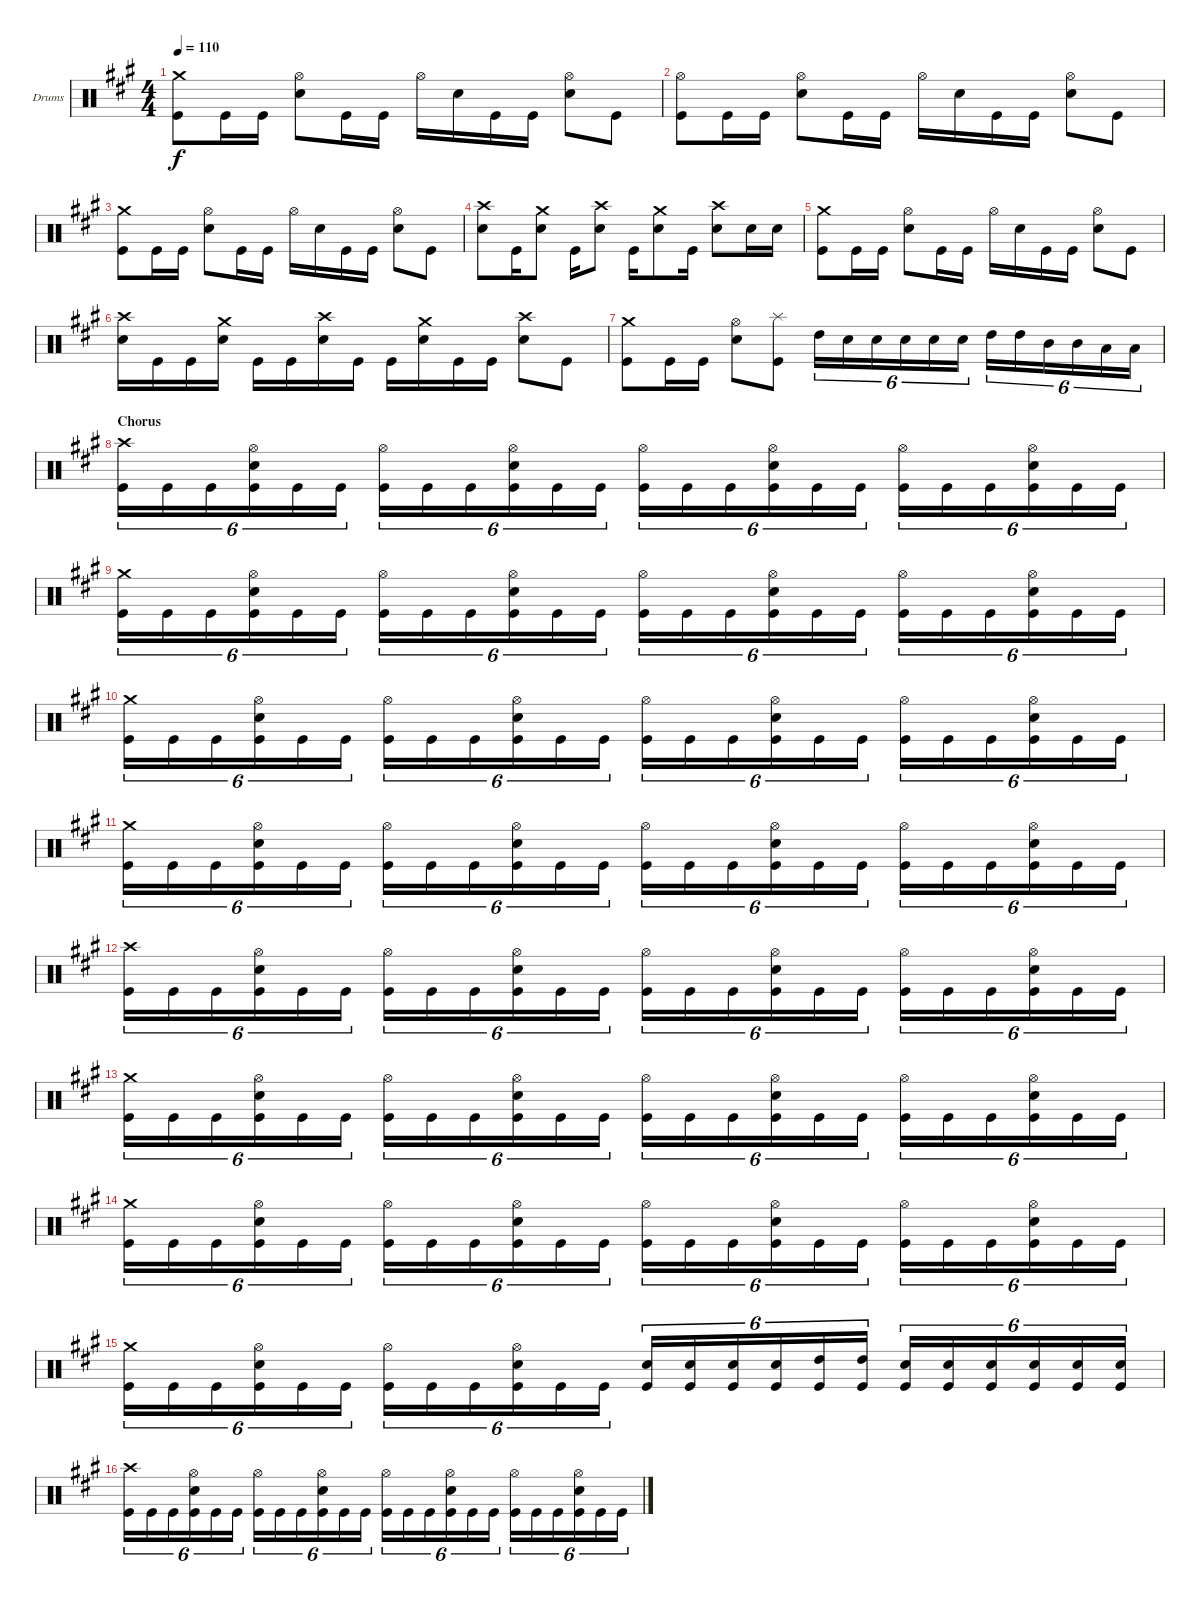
\bracketExtendMode groupsimilarinstruments
\firstSystemTrackNameOrientation horizontal
\otherSystemsTrackNameOrientation horizontal
\track ("Drumkit" "Drums") {instrument percussion}
\staff {score}
\articulation defaults
\ts (4 4)
\tempo 110
\clef neutral
\ks a
("Kick (hit)" "Crash medium (hit)").8{dy f} "Kick (hit)".16 "Kick (hit)".16 ("Snare (hit) 2" "Hi-Hat (open)").8 "Kick (hit)".16 "Kick (hit)".16 "Hi-Hat (open)".16 "Snare (hit) 2".16 "Kick (hit)".16 "Kick (hit)".16 ("Snare (hit) 2" "Hi-Hat (open)").8 "Kick (hit)".8 |
("Kick (hit)" "Hi-Hat (open)").8 "Kick (hit)".16 "Kick (hit)".16 ("Snare (hit) 2" "Hi-Hat (open)").8 "Kick (hit)".16 "Kick (hit)".16 "Hi-Hat (open)".16 "Snare (hit) 2".16 "Kick (hit)".16 "Kick (hit)".16 ("Snare (hit) 2" "Hi-Hat (open)").8 "Kick (hit)".8 |
("Kick (hit)" "Crash medium (hit)").8 "Kick (hit)".16 "Kick (hit)".16 ("Snare (hit) 2" "Hi-Hat (open)").8 "Kick (hit)".16 "Kick (hit)".16 "Hi-Hat (open)".16 "Snare (hit) 2".16 "Kick (hit)".16 "Kick (hit)".16 ("Snare (hit) 2" "Hi-Hat (open)").8 "Kick (hit)".8 |
("Crash high (hit)" "Snare (hit) 2").8 "Kick (hit)".16 ("Snare (hit) 2" "Crash medium (hit)").8 "Kick (hit)".16 ("Snare (hit) 2" "Crash high (hit)").8 "Kick (hit)".16 ("Snare (hit) 2" "Crash medium (hit)").8 "Kick (hit)".16 ("Snare (hit) 2" "Crash high (hit)").8 "Snare (hit) 2".16 "Snare (hit) 2".16 |
("Kick (hit)" "Crash medium (hit)").8 "Kick (hit)".16 "Kick (hit)".16 ("Snare (hit) 2" "Hi-Hat (open)").8 "Kick (hit)".16 "Kick (hit)".16 "Hi-Hat (open)".16 "Snare (hit) 2".16 "Kick (hit)".16 "Kick (hit)".16 ("Snare (hit) 2" "Hi-Hat (open)").8 "Kick (hit)".8 |
("Crash high (hit)" "Snare (hit) 2").16 "Kick (hit)".16 "Kick (hit)".16 ("Snare (hit) 2" "Crash medium (hit)").16 "Kick (hit)".16 "Kick (hit)".16 ("Snare (hit) 2" "Crash high (hit)").16 "Kick (hit)".16 "Kick (hit)".16 ("Snare (hit) 2" "Crash medium (hit)").16 "Kick (hit)".16 "Kick (hit)".16 ("Snare (hit) 2" "Crash high (hit)").8 "Kick (hit)".8 |
("Kick (hit)" "Crash medium (hit)").8 "Kick (hit)".16 "Kick (hit)".16 ("Snare (hit) 2" "Hi-Hat (open)").8 ("Kick (hit)" "Splash (hit)").8 "High Tom (hit)".16{tu (6 4)} "Snare (hit) 2".16{tu (6 4)} "Snare (hit) 2".16{tu (6 4)} "Snare (hit) 2".16{tu (6 4)} "Snare (hit) 2".16{tu (6 4)} "Snare (hit) 2".16{tu (6 4)} "High Tom (hit)".16{tu (6 4)} "High Tom (hit)".16{tu (6 4)} "Mid Tom (hit)".16{tu (6 4)} "Mid Tom (hit)".16{tu (6 4)} "Low Tom (hit)".16{tu (6 4)} "Low Tom (hit)".16{tu (6 4)} |
\section ("" "Chorus")
("Crash high (hit)" "Kick (hit)").16{tu (6 4)} "Kick (hit)".16{tu (6 4)} "Kick (hit)".16{tu (6 4)} ("Snare (hit) 2" "Kick (hit)" "Hi-Hat (open)").16{tu (6 4)} "Kick (hit)".16{tu (6 4)} "Kick (hit)".16{tu (6 4)} ("Kick (hit)" "Hi-Hat (open)").16{tu (6 4)} "Kick (hit)".16{tu (6 4)} "Kick (hit)".16{tu (6 4)} ("Snare (hit) 2" "Kick (hit)" "Hi-Hat (open)").16{tu (6 4)} "Kick (hit)".16{tu (6 4)} "Kick (hit)".16{tu (6 4)} ("Kick (hit)" "Hi-Hat (open)").16{tu (6 4)} "Kick (hit)".16{tu (6 4)} "Kick (hit)".16{tu (6 4)} ("Snare (hit) 2" "Kick (hit)" "Hi-Hat (open)").16{tu (6 4)} "Kick (hit)".16{tu (6 4)} "Kick (hit)".16{tu (6 4)} ("Kick (hit)" "Hi-Hat (open)").16{tu (6 4)} "Kick (hit)".16{tu (6 4)} "Kick (hit)".16{tu (6 4)} ("Snare (hit) 2" "Kick (hit)" "Hi-Hat (open)").16{tu (6 4)} "Kick (hit)".16{tu (6 4)} "Kick (hit)".16{tu (6 4)} |
("Kick (hit)" "Crash medium (hit)").16{tu (6 4)} "Kick (hit)".16{tu (6 4)} "Kick (hit)".16{tu (6 4)} ("Snare (hit) 2" "Kick (hit)" "Hi-Hat (open)").16{tu (6 4)} "Kick (hit)".16{tu (6 4)} "Kick (hit)".16{tu (6 4)} ("Kick (hit)" "Hi-Hat (open)").16{tu (6 4)} "Kick (hit)".16{tu (6 4)} "Kick (hit)".16{tu (6 4)} ("Snare (hit) 2" "Kick (hit)" "Hi-Hat (open)").16{tu (6 4)} "Kick (hit)".16{tu (6 4)} "Kick (hit)".16{tu (6 4)} ("Kick (hit)" "Hi-Hat (open)").16{tu (6 4)} "Kick (hit)".16{tu (6 4)} "Kick (hit)".16{tu (6 4)} ("Snare (hit) 2" "Kick (hit)" "Hi-Hat (open)").16{tu (6 4)} "Kick (hit)".16{tu (6 4)} "Kick (hit)".16{tu (6 4)} ("Kick (hit)" "Hi-Hat (open)").16{tu (6 4)} "Kick (hit)".16{tu (6 4)} "Kick (hit)".16{tu (6 4)} ("Snare (hit) 2" "Kick (hit)" "Hi-Hat (open)").16{tu (6 4)} "Kick (hit)".16{tu (6 4)} "Kick (hit)".16{tu (6 4)} |
("Kick (hit)" "Crash medium (hit)").16{tu (6 4)} "Kick (hit)".16{tu (6 4)} "Kick (hit)".16{tu (6 4)} ("Snare (hit) 2" "Kick (hit)" "Hi-Hat (open)").16{tu (6 4)} "Kick (hit)".16{tu (6 4)} "Kick (hit)".16{tu (6 4)} ("Kick (hit)" "Hi-Hat (open)").16{tu (6 4)} "Kick (hit)".16{tu (6 4)} "Kick (hit)".16{tu (6 4)} ("Snare (hit) 2" "Kick (hit)" "Hi-Hat (open)").16{tu (6 4)} "Kick (hit)".16{tu (6 4)} "Kick (hit)".16{tu (6 4)} ("Kick (hit)" "Hi-Hat (open)").16{tu (6 4)} "Kick (hit)".16{tu (6 4)} "Kick (hit)".16{tu (6 4)} ("Snare (hit) 2" "Kick (hit)" "Hi-Hat (open)").16{tu (6 4)} "Kick (hit)".16{tu (6 4)} "Kick (hit)".16{tu (6 4)} ("Kick (hit)" "Hi-Hat (open)").16{tu (6 4)} "Kick (hit)".16{tu (6 4)} "Kick (hit)".16{tu (6 4)} ("Snare (hit) 2" "Kick (hit)" "Hi-Hat (open)").16{tu (6 4)} "Kick (hit)".16{tu (6 4)} "Kick (hit)".16{tu (6 4)} |
("Kick (hit)" "Crash medium (hit)").16{tu (6 4)} "Kick (hit)".16{tu (6 4)} "Kick (hit)".16{tu (6 4)} ("Snare (hit) 2" "Kick (hit)" "Hi-Hat (open)").16{tu (6 4)} "Kick (hit)".16{tu (6 4)} "Kick (hit)".16{tu (6 4)} ("Kick (hit)" "Hi-Hat (open)").16{tu (6 4)} "Kick (hit)".16{tu (6 4)} "Kick (hit)".16{tu (6 4)} ("Snare (hit) 2" "Kick (hit)" "Hi-Hat (open)").16{tu (6 4)} "Kick (hit)".16{tu (6 4)} "Kick (hit)".16{tu (6 4)} ("Kick (hit)" "Hi-Hat (open)").16{tu (6 4)} "Kick (hit)".16{tu (6 4)} "Kick (hit)".16{tu (6 4)} ("Snare (hit) 2" "Kick (hit)" "Hi-Hat (open)").16{tu (6 4)} "Kick (hit)".16{tu (6 4)} "Kick (hit)".16{tu (6 4)} ("Kick (hit)" "Hi-Hat (open)").16{tu (6 4)} "Kick (hit)".16{tu (6 4)} "Kick (hit)".16{tu (6 4)} ("Snare (hit) 2" "Kick (hit)" "Hi-Hat (open)").16{tu (6 4)} "Kick (hit)".16{tu (6 4)} "Kick (hit)".16{tu (6 4)} |
("Crash high (hit)" "Kick (hit)").16{tu (6 4)} "Kick (hit)".16{tu (6 4)} "Kick (hit)".16{tu (6 4)} ("Snare (hit) 2" "Kick (hit)" "Hi-Hat (open)").16{tu (6 4)} "Kick (hit)".16{tu (6 4)} "Kick (hit)".16{tu (6 4)} ("Kick (hit)" "Hi-Hat (open)").16{tu (6 4)} "Kick (hit)".16{tu (6 4)} "Kick (hit)".16{tu (6 4)} ("Snare (hit) 2" "Kick (hit)" "Hi-Hat (open)").16{tu (6 4)} "Kick (hit)".16{tu (6 4)} "Kick (hit)".16{tu (6 4)} ("Kick (hit)" "Hi-Hat (open)").16{tu (6 4)} "Kick (hit)".16{tu (6 4)} "Kick (hit)".16{tu (6 4)} ("Snare (hit) 2" "Kick (hit)" "Hi-Hat (open)").16{tu (6 4)} "Kick (hit)".16{tu (6 4)} "Kick (hit)".16{tu (6 4)} ("Kick (hit)" "Hi-Hat (open)").16{tu (6 4)} "Kick (hit)".16{tu (6 4)} "Kick (hit)".16{tu (6 4)} ("Snare (hit) 2" "Kick (hit)" "Hi-Hat (open)").16{tu (6 4)} "Kick (hit)".16{tu (6 4)} "Kick (hit)".16{tu (6 4)} |
("Kick (hit)" "Crash medium (hit)").16{tu (6 4)} "Kick (hit)".16{tu (6 4)} "Kick (hit)".16{tu (6 4)} ("Snare (hit) 2" "Kick (hit)" "Hi-Hat (open)").16{tu (6 4)} "Kick (hit)".16{tu (6 4)} "Kick (hit)".16{tu (6 4)} ("Kick (hit)" "Hi-Hat (open)").16{tu (6 4)} "Kick (hit)".16{tu (6 4)} "Kick (hit)".16{tu (6 4)} ("Snare (hit) 2" "Kick (hit)" "Hi-Hat (open)").16{tu (6 4)} "Kick (hit)".16{tu (6 4)} "Kick (hit)".16{tu (6 4)} ("Kick (hit)" "Hi-Hat (open)").16{tu (6 4)} "Kick (hit)".16{tu (6 4)} "Kick (hit)".16{tu (6 4)} ("Snare (hit) 2" "Kick (hit)" "Hi-Hat (open)").16{tu (6 4)} "Kick (hit)".16{tu (6 4)} "Kick (hit)".16{tu (6 4)} ("Kick (hit)" "Hi-Hat (open)").16{tu (6 4)} "Kick (hit)".16{tu (6 4)} "Kick (hit)".16{tu (6 4)} ("Snare (hit) 2" "Kick (hit)" "Hi-Hat (open)").16{tu (6 4)} "Kick (hit)".16{tu (6 4)} "Kick (hit)".16{tu (6 4)} |
("Kick (hit)" "Crash medium (hit)").16{tu (6 4)} "Kick (hit)".16{tu (6 4)} "Kick (hit)".16{tu (6 4)} ("Snare (hit) 2" "Kick (hit)" "Hi-Hat (open)").16{tu (6 4)} "Kick (hit)".16{tu (6 4)} "Kick (hit)".16{tu (6 4)} ("Kick (hit)" "Hi-Hat (open)").16{tu (6 4)} "Kick (hit)".16{tu (6 4)} "Kick (hit)".16{tu (6 4)} ("Snare (hit) 2" "Kick (hit)" "Hi-Hat (open)").16{tu (6 4)} "Kick (hit)".16{tu (6 4)} "Kick (hit)".16{tu (6 4)} ("Kick (hit)" "Hi-Hat (open)").16{tu (6 4)} "Kick (hit)".16{tu (6 4)} "Kick (hit)".16{tu (6 4)} ("Snare (hit) 2" "Kick (hit)" "Hi-Hat (open)").16{tu (6 4)} "Kick (hit)".16{tu (6 4)} "Kick (hit)".16{tu (6 4)} ("Kick (hit)" "Hi-Hat (open)").16{tu (6 4)} "Kick (hit)".16{tu (6 4)} "Kick (hit)".16{tu (6 4)} ("Snare (hit) 2" "Kick (hit)" "Hi-Hat (open)").16{tu (6 4)} "Kick (hit)".16{tu (6 4)} "Kick (hit)".16{tu (6 4)} |
("Kick (hit)" "Crash medium (hit)").16{tu (6 4)} "Kick (hit)".16{tu (6 4)} "Kick (hit)".16{tu (6 4)} ("Snare (hit) 2" "Kick (hit)" "Hi-Hat (open)").16{tu (6 4)} "Kick (hit)".16{tu (6 4)} "Kick (hit)".16{tu (6 4)} ("Kick (hit)" "Hi-Hat (open)").16{tu (6 4)} "Kick (hit)".16{tu (6 4)} "Kick (hit)".16{tu (6 4)} ("Snare (hit) 2" "Kick (hit)" "Hi-Hat (open)").16{tu (6 4)} "Kick (hit)".16{tu (6 4)} "Kick (hit)".16{tu (6 4)} ("Kick (hit)" "Snare (hit) 2").16{tu (6 4)} ("Kick (hit)" "Snare (hit) 2").16{tu (6 4)} ("Kick (hit)" "Snare (hit) 2").16{tu (6 4)} ("Kick (hit)" "Snare (hit) 2").16{tu (6 4)} ("Kick (hit)" "High Tom (hit)").16{tu (6 4)} ("Kick (hit)" "High Tom (hit)").16{tu (6 4)} ("Kick (hit)" "Snare (hit) 2").16{tu (6 4)} ("Kick (hit)" "Snare (hit) 2").16{tu (6 4)} ("Kick (hit)" "Snare (hit) 2").16{tu (6 4)} ("Kick (hit)" "Snare (hit) 2").16{tu (6 4)} ("Kick (hit)" "Snare (hit) 2").16{tu (6 4)} ("Kick (hit)" "Snare (hit) 2").16{tu (6 4)} |
("Crash high (hit)" "Kick (hit)").16{tu (6 4)} "Kick (hit)".16{tu (6 4)} "Kick (hit)".16{tu (6 4)} ("Snare (hit) 2" "Kick (hit)" "Hi-Hat (open)").16{tu (6 4)} "Kick (hit)".16{tu (6 4)} "Kick (hit)".16{tu (6 4)} ("Kick (hit)" "Hi-Hat (open)").16{tu (6 4)} "Kick (hit)".16{tu (6 4)} "Kick (hit)".16{tu (6 4)} ("Snare (hit) 2" "Kick (hit)" "Hi-Hat (open)").16{tu (6 4)} "Kick (hit)".16{tu (6 4)} "Kick (hit)".16{tu (6 4)} ("Kick (hit)" "Hi-Hat (open)").16{tu (6 4)} "Kick (hit)".16{tu (6 4)} "Kick (hit)".16{tu (6 4)} ("Snare (hit) 2" "Kick (hit)" "Hi-Hat (open)").16{tu (6 4)} "Kick (hit)".16{tu (6 4)} "Kick (hit)".16{tu (6 4)} ("Kick (hit)" "Hi-Hat (open)").16{tu (6 4)} "Kick (hit)".16{tu (6 4)} "Kick (hit)".16{tu (6 4)} ("Snare (hit) 2" "Kick (hit)" "Hi-Hat (open)").16{tu (6 4)} "Kick (hit)".16{tu (6 4)} "Kick (hit)".16{tu (6 4)}
